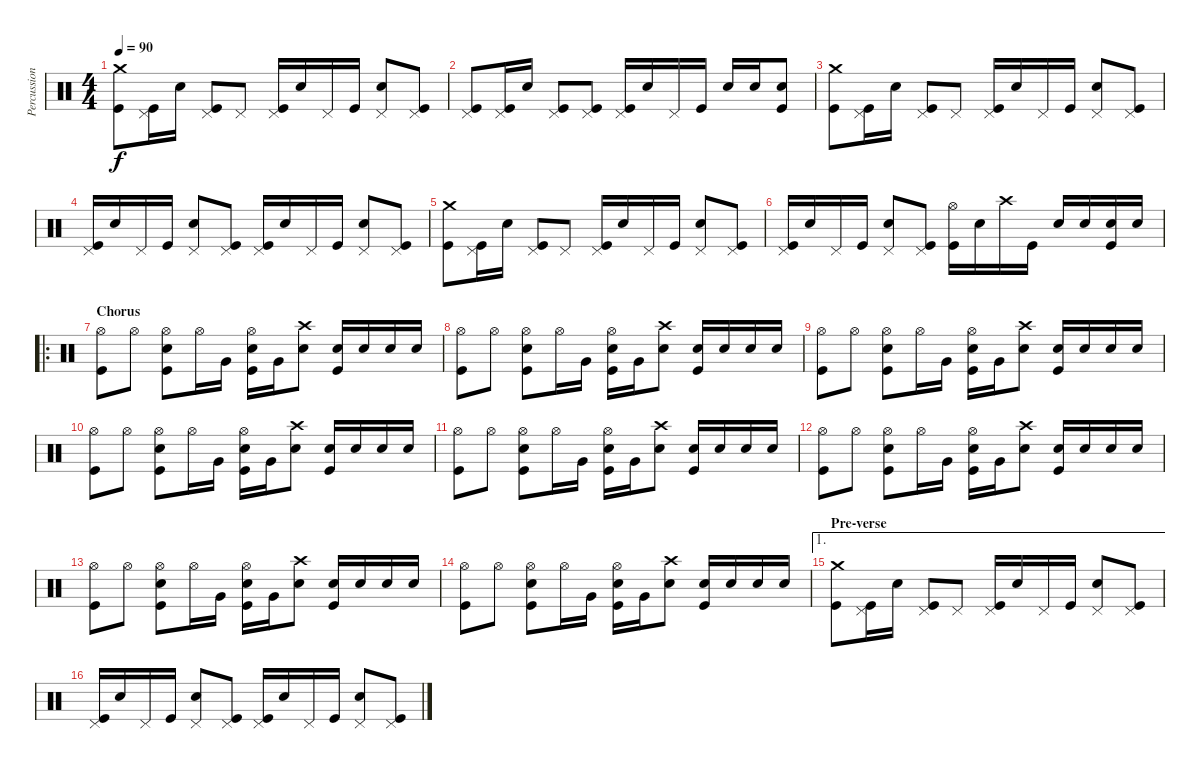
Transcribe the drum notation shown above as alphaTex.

\track ("Percussion" "Percussion") {instrument percussion}
\staff {score}
\articulation defaults
\ts (4 4)
\tempo 90
\clef neutral
\ks c
("Crash medium (hit)" "Kick (hit)").8{dy f} ("Pedal Hi-Hat (hit)" "Kick (hit)").16 "Snare (hit) 2".16 ("Pedal Hi-Hat (hit)" "Kick (hit)").8 "Pedal Hi-Hat (hit)".8 ("Pedal Hi-Hat (hit)" "Kick (hit)").16 "Snare (hit) 2".16 "Pedal Hi-Hat (hit)".16 "Kick (hit)".16 ("Pedal Hi-Hat (hit)" "Snare (hit) 2").8 ("Pedal Hi-Hat (hit)" "Kick (hit)").8 |
("Pedal Hi-Hat (hit)" "Kick (hit)").8 ("Pedal Hi-Hat (hit)" "Kick (hit)").16 "Snare (hit) 2".16 ("Pedal Hi-Hat (hit)" "Kick (hit)").8 ("Pedal Hi-Hat (hit)" "Kick (hit)").8 ("Pedal Hi-Hat (hit)" "Kick (hit)").16 "Snare (hit) 2".16 "Pedal Hi-Hat (hit)".16 "Kick (hit)".16 "Snare (hit) 2".16 "Snare (hit) 2".16 ("Snare (hit) 2" "Kick (hit)").8 |
("Crash medium (hit)" "Kick (hit)").8 ("Pedal Hi-Hat (hit)" "Kick (hit)").16 "Snare (hit) 2".16 ("Pedal Hi-Hat (hit)" "Kick (hit)").8 "Pedal Hi-Hat (hit)".8 ("Pedal Hi-Hat (hit)" "Kick (hit)").16 "Snare (hit) 2".16 "Pedal Hi-Hat (hit)".16 "Kick (hit)".16 ("Pedal Hi-Hat (hit)" "Snare (hit) 2").8 ("Pedal Hi-Hat (hit)" "Kick (hit)").8 |
("Pedal Hi-Hat (hit)" "Kick (hit)").16 "Snare (hit) 2".16 "Pedal Hi-Hat (hit)".16 "Kick (hit)".16 ("Pedal Hi-Hat (hit)" "Snare (hit) 2").8 ("Pedal Hi-Hat (hit)" "Kick (hit)").8 ("Pedal Hi-Hat (hit)" "Kick (hit)").16 "Snare (hit) 2".16 "Pedal Hi-Hat (hit)".16 "Kick (hit)".16 ("Pedal Hi-Hat (hit)" "Snare (hit) 2").8 ("Pedal Hi-Hat (hit)" "Kick (hit)").8 |
("Crash medium (hit)" "Kick (hit)").8 ("Pedal Hi-Hat (hit)" "Kick (hit)").16 "Snare (hit) 2".16 ("Pedal Hi-Hat (hit)" "Kick (hit)").8 "Pedal Hi-Hat (hit)".8 ("Pedal Hi-Hat (hit)" "Kick (hit)").16 "Snare (hit) 2".16 "Pedal Hi-Hat (hit)".16 "Kick (hit)".16 ("Pedal Hi-Hat (hit)" "Snare (hit) 2").8 ("Pedal Hi-Hat (hit)" "Kick (hit)").8 |
("Pedal Hi-Hat (hit)" "Kick (hit)").16 "Snare (hit) 2".16 "Pedal Hi-Hat (hit)".16 "Kick (hit)".16 ("Pedal Hi-Hat (hit)" "Snare (hit) 2").8 ("Pedal Hi-Hat (hit)" "Kick (hit)").8 ("Hi-Hat (open)" "Kick (hit)").16 "Snare (hit) 2".16 "Crash high (hit)".16 "Kick (hit)".16 "Snare (hit) 2".16 "Snare (hit) 2".16 ("Snare (hit) 2" "Kick (hit)").16 "Snare (hit) 2".16 |
\ro
\section ("" "Chorus")
("Hi-Hat (open)" "Kick (hit)").8 "Hi-Hat (open)".8 ("Hi-Hat (open)" "Snare (hit) 2" "Kick (hit)").8 "Hi-Hat (open)".16 "Very Low Tom (hit)".16 ("Hi-Hat (open)" "Snare (hit) 2" "Kick (hit)").16 "Very Low Tom (hit)".16 ("Crash high (hit)" "Snare (hit) 2").8 ("Snare (hit) 2" "Kick (hit)").16 "Snare (hit) 2".16 "Snare (hit) 2".16 "Snare (hit) 2".16 |
("Hi-Hat (open)" "Kick (hit)").8 "Hi-Hat (open)".8 ("Hi-Hat (open)" "Snare (hit) 2" "Kick (hit)").8 "Hi-Hat (open)".16 "Very Low Tom (hit)".16 ("Hi-Hat (open)" "Snare (hit) 2" "Kick (hit)").16 "Very Low Tom (hit)".16 ("Crash high (hit)" "Snare (hit) 2").8 ("Snare (hit) 2" "Kick (hit)").16 "Snare (hit) 2".16 "Snare (hit) 2".16 "Snare (hit) 2".16 |
("Hi-Hat (open)" "Kick (hit)").8 "Hi-Hat (open)".8 ("Hi-Hat (open)" "Snare (hit) 2" "Kick (hit)").8 "Hi-Hat (open)".16 "Very Low Tom (hit)".16 ("Hi-Hat (open)" "Snare (hit) 2" "Kick (hit)").16 "Very Low Tom (hit)".16 ("Crash high (hit)" "Snare (hit) 2").8 ("Snare (hit) 2" "Kick (hit)").16 "Snare (hit) 2".16 "Snare (hit) 2".16 "Snare (hit) 2".16 |
("Hi-Hat (open)" "Kick (hit)").8 "Hi-Hat (open)".8 ("Hi-Hat (open)" "Snare (hit) 2" "Kick (hit)").8 "Hi-Hat (open)".16 "Very Low Tom (hit)".16 ("Hi-Hat (open)" "Snare (hit) 2" "Kick (hit)").16 "Very Low Tom (hit)".16 ("Crash high (hit)" "Snare (hit) 2").8 ("Snare (hit) 2" "Kick (hit)").16 "Snare (hit) 2".16 "Snare (hit) 2".16 "Snare (hit) 2".16 |
("Hi-Hat (open)" "Kick (hit)").8 "Hi-Hat (open)".8 ("Hi-Hat (open)" "Snare (hit) 2" "Kick (hit)").8 "Hi-Hat (open)".16 "Very Low Tom (hit)".16 ("Hi-Hat (open)" "Snare (hit) 2" "Kick (hit)").16 "Very Low Tom (hit)".16 ("Crash high (hit)" "Snare (hit) 2").8 ("Snare (hit) 2" "Kick (hit)").16 "Snare (hit) 2".16 "Snare (hit) 2".16 "Snare (hit) 2".16 |
("Hi-Hat (open)" "Kick (hit)").8 "Hi-Hat (open)".8 ("Hi-Hat (open)" "Snare (hit) 2" "Kick (hit)").8 "Hi-Hat (open)".16 "Very Low Tom (hit)".16 ("Hi-Hat (open)" "Snare (hit) 2" "Kick (hit)").16 "Very Low Tom (hit)".16 ("Crash high (hit)" "Snare (hit) 2").8 ("Snare (hit) 2" "Kick (hit)").16 "Snare (hit) 2".16 "Snare (hit) 2".16 "Snare (hit) 2".16 |
("Hi-Hat (open)" "Kick (hit)").8 "Hi-Hat (open)".8 ("Hi-Hat (open)" "Snare (hit) 2" "Kick (hit)").8 "Hi-Hat (open)".16 "Very Low Tom (hit)".16 ("Hi-Hat (open)" "Snare (hit) 2" "Kick (hit)").16 "Very Low Tom (hit)".16 ("Crash high (hit)" "Snare (hit) 2").8 ("Snare (hit) 2" "Kick (hit)").16 "Snare (hit) 2".16 "Snare (hit) 2".16 "Snare (hit) 2".16 |
("Hi-Hat (open)" "Kick (hit)").8 "Hi-Hat (open)".8 ("Hi-Hat (open)" "Snare (hit) 2" "Kick (hit)").8 "Hi-Hat (open)".16 "Very Low Tom (hit)".16 ("Hi-Hat (open)" "Snare (hit) 2" "Kick (hit)").16 "Very Low Tom (hit)".16 ("Crash high (hit)" "Snare (hit) 2").8 ("Snare (hit) 2" "Kick (hit)").16 "Snare (hit) 2".16 "Snare (hit) 2".16 "Snare (hit) 2".16 |
\ae 1
\section ("" "Pre-verse")
("Crash medium (hit)" "Kick (hit)").8 ("Pedal Hi-Hat (hit)" "Kick (hit)").16 "Snare (hit) 2".16 ("Pedal Hi-Hat (hit)" "Kick (hit)").8 "Pedal Hi-Hat (hit)".8 ("Pedal Hi-Hat (hit)" "Kick (hit)").16 "Snare (hit) 2".16 "Pedal Hi-Hat (hit)".16 "Kick (hit)".16 ("Pedal Hi-Hat (hit)" "Snare (hit) 2").8 ("Pedal Hi-Hat (hit)" "Kick (hit)").8 |
("Pedal Hi-Hat (hit)" "Kick (hit)").16 "Snare (hit) 2".16 "Pedal Hi-Hat (hit)".16 "Kick (hit)".16 ("Pedal Hi-Hat (hit)" "Snare (hit) 2").8 ("Pedal Hi-Hat (hit)" "Kick (hit)").8 ("Pedal Hi-Hat (hit)" "Kick (hit)").16 "Snare (hit) 2".16 "Pedal Hi-Hat (hit)".16 "Kick (hit)".16 ("Pedal Hi-Hat (hit)" "Snare (hit) 2").8 ("Pedal Hi-Hat (hit)" "Kick (hit)").8
